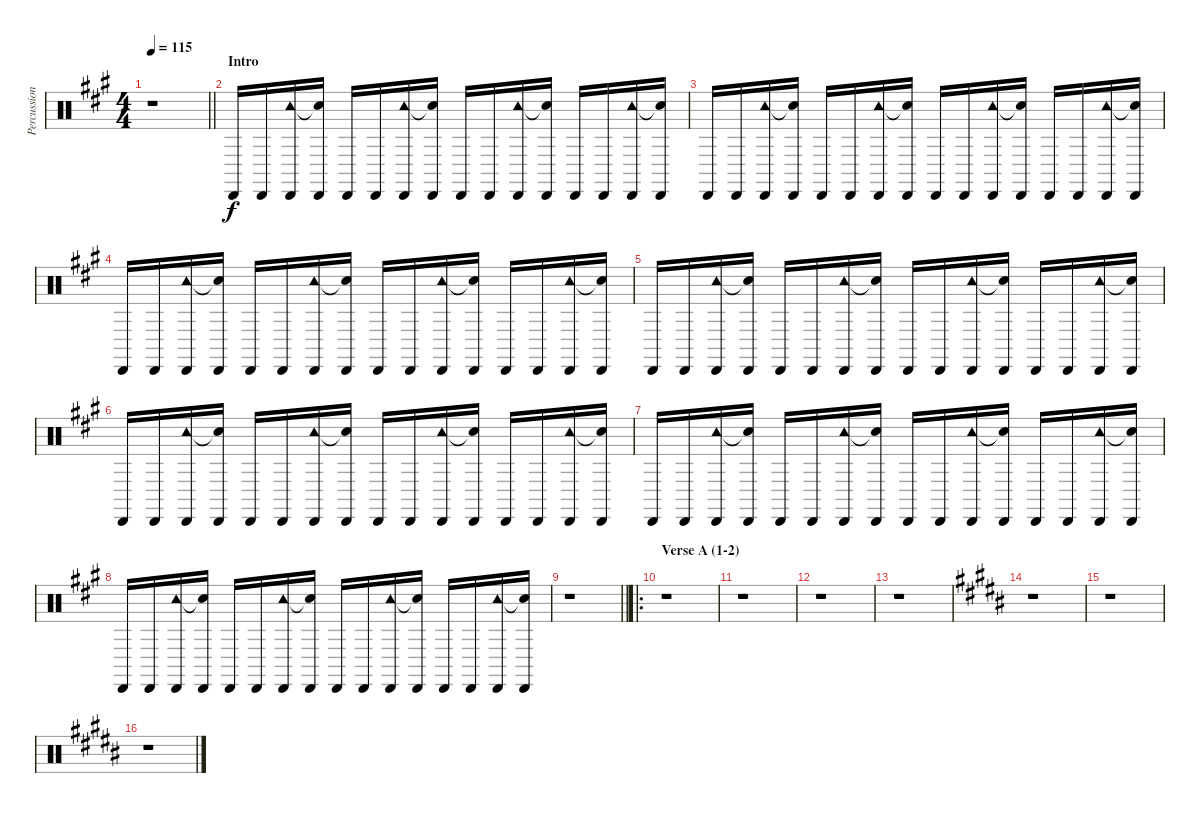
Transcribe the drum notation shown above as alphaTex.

\track ("Percussion" "Percussion") {instrument percussion}
\staff {score}
\articulation defaults
\ts (4 4)
\tempo 115
\clef neutral
\barLineRight lightlight
\ks a
r.1{dy f} |
\section ("" "Intro")
"Cabasa (hit)".16 "Cabasa (hit)".16 ("Cabasa (hit)" "Tambourine (hit)").16 ("Cabasa (hit)" "Snare (hit)"{t}).16 "Cabasa (hit)".16 "Cabasa (hit)".16 ("Cabasa (hit)" "Tambourine (hit)").16 ("Cabasa (hit)" "Snare (hit)"{t}).16 "Cabasa (hit)".16 "Cabasa (hit)".16 ("Cabasa (hit)" "Tambourine (hit)").16 ("Cabasa (hit)" "Snare (hit)"{t}).16 "Cabasa (hit)".16 "Cabasa (hit)".16 ("Cabasa (hit)" "Tambourine (hit)").16 ("Cabasa (hit)" "Snare (hit)"{t}).16 |
"Cabasa (hit)".16 "Cabasa (hit)".16 ("Cabasa (hit)" "Tambourine (hit)").16 ("Cabasa (hit)" "Snare (hit)"{t}).16 "Cabasa (hit)".16 "Cabasa (hit)".16 ("Cabasa (hit)" "Tambourine (hit)").16 ("Cabasa (hit)" "Snare (hit)"{t}).16 "Cabasa (hit)".16 "Cabasa (hit)".16 ("Cabasa (hit)" "Tambourine (hit)").16 ("Cabasa (hit)" "Snare (hit)"{t}).16 "Cabasa (hit)".16 "Cabasa (hit)".16 ("Cabasa (hit)" "Tambourine (hit)").16 ("Cabasa (hit)" "Snare (hit)"{t}).16 |
"Cabasa (hit)".16 "Cabasa (hit)".16 ("Cabasa (hit)" "Tambourine (hit)").16 ("Cabasa (hit)" "Snare (hit)"{t}).16 "Cabasa (hit)".16 "Cabasa (hit)".16 ("Cabasa (hit)" "Tambourine (hit)").16 ("Cabasa (hit)" "Snare (hit)"{t}).16 "Cabasa (hit)".16 "Cabasa (hit)".16 ("Cabasa (hit)" "Tambourine (hit)").16 ("Cabasa (hit)" "Snare (hit)"{t}).16 "Cabasa (hit)".16 "Cabasa (hit)".16 ("Cabasa (hit)" "Tambourine (hit)").16 ("Cabasa (hit)" "Snare (hit)"{t}).16 |
"Cabasa (hit)".16 "Cabasa (hit)".16 ("Cabasa (hit)" "Tambourine (hit)").16 ("Cabasa (hit)" "Snare (hit)"{t}).16 "Cabasa (hit)".16 "Cabasa (hit)".16 ("Cabasa (hit)" "Tambourine (hit)").16 ("Cabasa (hit)" "Snare (hit)"{t}).16 "Cabasa (hit)".16 "Cabasa (hit)".16 ("Cabasa (hit)" "Tambourine (hit)").16 ("Cabasa (hit)" "Snare (hit)"{t}).16 "Cabasa (hit)".16 "Cabasa (hit)".16 ("Cabasa (hit)" "Tambourine (hit)").16 ("Cabasa (hit)" "Snare (hit)"{t}).16 |
"Cabasa (hit)".16 "Cabasa (hit)".16 ("Cabasa (hit)" "Tambourine (hit)").16 ("Cabasa (hit)" "Snare (hit)"{t}).16 "Cabasa (hit)".16 "Cabasa (hit)".16 ("Cabasa (hit)" "Tambourine (hit)").16 ("Cabasa (hit)" "Snare (hit)"{t}).16 "Cabasa (hit)".16 "Cabasa (hit)".16 ("Cabasa (hit)" "Tambourine (hit)").16 ("Cabasa (hit)" "Snare (hit)"{t}).16 "Cabasa (hit)".16 "Cabasa (hit)".16 ("Cabasa (hit)" "Tambourine (hit)").16 ("Cabasa (hit)" "Snare (hit)"{t}).16 |
"Cabasa (hit)".16 "Cabasa (hit)".16 ("Cabasa (hit)" "Tambourine (hit)").16 ("Cabasa (hit)" "Snare (hit)"{t}).16 "Cabasa (hit)".16 "Cabasa (hit)".16 ("Cabasa (hit)" "Tambourine (hit)").16 ("Cabasa (hit)" "Snare (hit)"{t}).16 "Cabasa (hit)".16 "Cabasa (hit)".16 ("Cabasa (hit)" "Tambourine (hit)").16 ("Cabasa (hit)" "Snare (hit)"{t}).16 "Cabasa (hit)".16 "Cabasa (hit)".16 ("Cabasa (hit)" "Tambourine (hit)").16 ("Cabasa (hit)" "Snare (hit)"{t}).16 |
"Cabasa (hit)".16 "Cabasa (hit)".16 ("Cabasa (hit)" "Tambourine (hit)").16 ("Cabasa (hit)" "Snare (hit)"{t}).16 "Cabasa (hit)".16 "Cabasa (hit)".16 ("Cabasa (hit)" "Tambourine (hit)").16 ("Cabasa (hit)" "Snare (hit)"{t}).16 "Cabasa (hit)".16 "Cabasa (hit)".16 ("Cabasa (hit)" "Tambourine (hit)").16 ("Cabasa (hit)" "Snare (hit)"{t}).16 "Cabasa (hit)".16 "Cabasa (hit)".16 ("Cabasa (hit)" "Tambourine (hit)").16 ("Cabasa (hit)" "Snare (hit)"{t}).16 |
\barLineRight lightlight
r.1 |
\ro
\section ("" "Verse A (1-2)")
r.1 |
r.1 |
r.1 |
r.1 |
\ks b
r.1 |
r.1 |
r.1
